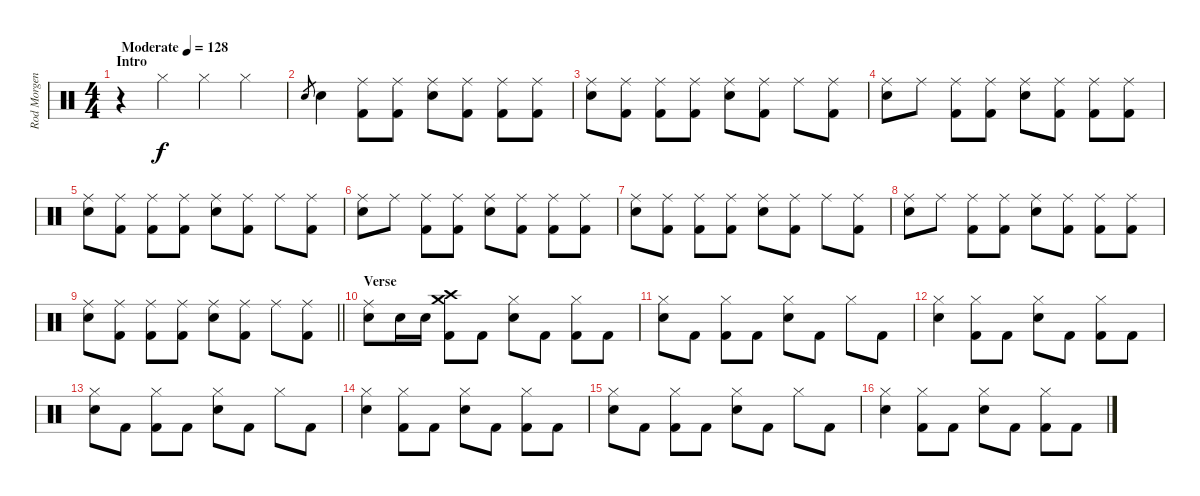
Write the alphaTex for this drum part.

\track ("Rod Morgenstein" "Rod Morgen") {instrument percussion}
\staff {score}
\articulation defaults
\ts (4 4)
\section ("" "Intro")
\tempo (128 "Moderate")
\clef neutral
\ks c
r.4{dy f} "Hi-Hat (closed)".4 "Hi-Hat (closed)".4 "Hi-Hat (closed)".4 |
"Snare (hit) 2".8{gr} "Snare (hit) 2".4 ("Ride (middle)" "Kick (hit) 2").8 ("Ride (middle)" "Kick (hit) 2").8 ("Ride (middle)" "Snare (hit) 2").8 ("Ride (middle)" "Kick (hit) 2").8 ("Ride (middle)" "Kick (hit) 2").8 ("Ride (middle)" "Kick (hit) 2").8 |
("Ride (middle)" "Snare (hit) 2").8 ("Ride (middle)" "Kick (hit) 2").8 ("Ride (middle)" "Kick (hit) 2").8 ("Ride (middle)" "Kick (hit) 2").8 ("Ride (middle)" "Snare (hit) 2").8 ("Ride (middle)" "Kick (hit) 2").8 "Ride (middle)".8 ("Ride (middle)" "Kick (hit) 2").8 |
("Ride (middle)" "Snare (hit) 2").8 "Ride (middle)".8 ("Ride (middle)" "Kick (hit) 2").8 ("Ride (middle)" "Kick (hit) 2").8 ("Ride (middle)" "Snare (hit) 2").8 ("Ride (middle)" "Kick (hit) 2").8 ("Ride (middle)" "Kick (hit) 2").8 ("Ride (middle)" "Kick (hit) 2").8 |
("Ride (middle)" "Snare (hit) 2").8 ("Ride (middle)" "Kick (hit) 2").8 ("Ride (middle)" "Kick (hit) 2").8 ("Ride (middle)" "Kick (hit) 2").8 ("Ride (middle)" "Snare (hit) 2").8 ("Ride (middle)" "Kick (hit) 2").8 "Ride (middle)".8 ("Ride (middle)" "Kick (hit) 2").8 |
("Ride (middle)" "Snare (hit) 2").8 "Ride (middle)".8 ("Ride (middle)" "Kick (hit) 2").8 ("Ride (middle)" "Kick (hit) 2").8 ("Ride (middle)" "Snare (hit) 2").8 ("Ride (middle)" "Kick (hit) 2").8 ("Ride (middle)" "Kick (hit) 2").8 ("Ride (middle)" "Kick (hit) 2").8 |
("Ride (middle)" "Snare (hit) 2").8 ("Ride (middle)" "Kick (hit) 2").8 ("Ride (middle)" "Kick (hit) 2").8 ("Ride (middle)" "Kick (hit) 2").8 ("Ride (middle)" "Snare (hit) 2").8 ("Ride (middle)" "Kick (hit) 2").8 "Ride (middle)".8 ("Ride (middle)" "Kick (hit) 2").8 |
("Ride (middle)" "Snare (hit) 2").8 "Ride (middle)".8 ("Ride (middle)" "Kick (hit) 2").8 ("Ride (middle)" "Kick (hit) 2").8 ("Ride (middle)" "Snare (hit) 2").8 ("Ride (middle)" "Kick (hit) 2").8 ("Ride (middle)" "Kick (hit) 2").8 ("Ride (middle)" "Kick (hit) 2").8 |
\barLineRight lightlight
("Ride (middle)" "Snare (hit) 2").8 ("Ride (middle)" "Kick (hit) 2").8 ("Ride (middle)" "Kick (hit) 2").8 ("Ride (middle)" "Kick (hit) 2").8 ("Ride (middle)" "Snare (hit) 2").8 ("Ride (middle)" "Kick (hit) 2").8 "Ride (middle)".8 ("Ride (middle)" "Kick (hit) 2").8 |
\section ("" "Verse")
("Ride (middle)" "Snare (hit) 2").8 "Snare (hit) 2".16 "Snare (hit) 2".16 ("Crash medium (hit)" "Crash high (hit)" "Kick (hit) 2").8 "Kick (hit) 2".8 ("Hi-Hat (closed)" "Snare (hit) 2").8 "Kick (hit) 2".8 ("Hi-Hat (closed)" "Kick (hit) 2").8 "Kick (hit) 2".8 |
("Hi-Hat (closed)" "Snare (hit) 2").8 "Kick (hit) 2".8 ("Hi-Hat (closed)" "Kick (hit) 2").8 "Kick (hit) 2".8 ("Hi-Hat (closed)" "Snare (hit) 2").8 "Kick (hit) 2".8 "Hi-Hat (closed)".8 "Kick (hit) 2".8 |
("Hi-Hat (closed)" "Snare (hit) 2").4 ("Hi-Hat (closed)" "Kick (hit) 2").8 "Kick (hit) 2".8 ("Hi-Hat (closed)" "Snare (hit) 2").8 "Kick (hit) 2".8 ("Hi-Hat (closed)" "Kick (hit) 2").8 "Kick (hit) 2".8 |
("Hi-Hat (closed)" "Snare (hit) 2").8 "Kick (hit) 2".8 ("Hi-Hat (closed)" "Kick (hit) 2").8 "Kick (hit) 2".8 ("Hi-Hat (closed)" "Snare (hit) 2").8 "Kick (hit) 2".8 "Hi-Hat (closed)".8 "Kick (hit) 2".8 |
("Hi-Hat (closed)" "Snare (hit) 2").4 ("Hi-Hat (closed)" "Kick (hit) 2").8 "Kick (hit) 2".8 ("Hi-Hat (closed)" "Snare (hit) 2").8 "Kick (hit) 2".8 ("Hi-Hat (closed)" "Kick (hit) 2").8 "Kick (hit) 2".8 |
("Hi-Hat (closed)" "Snare (hit) 2").8 "Kick (hit) 2".8 ("Hi-Hat (closed)" "Kick (hit) 2").8 "Kick (hit) 2".8 ("Hi-Hat (closed)" "Snare (hit) 2").8 "Kick (hit) 2".8 "Hi-Hat (closed)".8 "Kick (hit) 2".8 |
("Hi-Hat (closed)" "Snare (hit) 2").4 ("Hi-Hat (closed)" "Kick (hit) 2").8 "Kick (hit) 2".8 ("Hi-Hat (closed)" "Snare (hit) 2").8 "Kick (hit) 2".8 ("Hi-Hat (closed)" "Kick (hit) 2").8 "Kick (hit) 2".8
